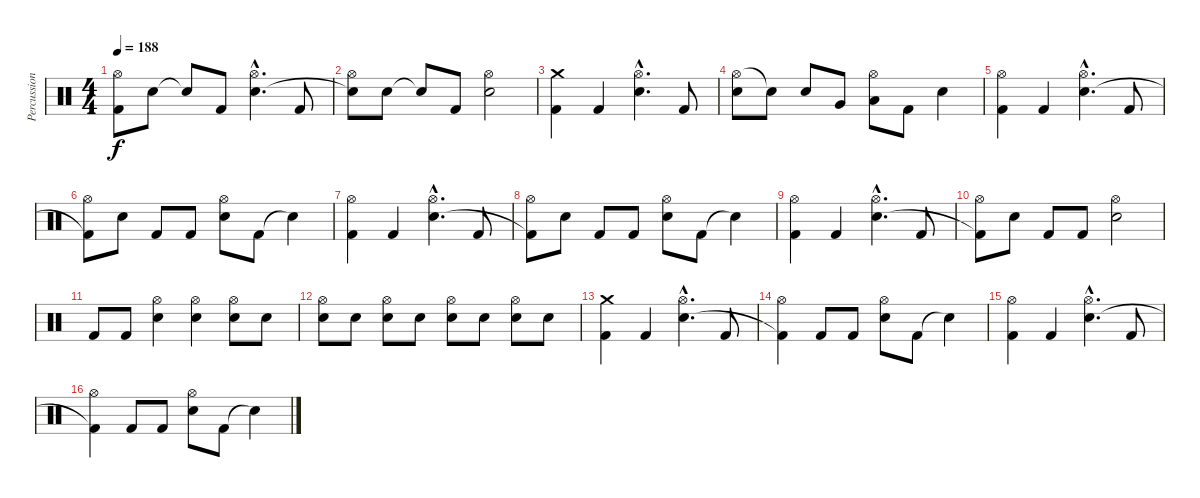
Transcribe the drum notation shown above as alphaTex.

\track ("Percussion" "Percussion") {instrument percussion}
\staff {score}
\articulation defaults
\ts (4 4)
\tempo 188
\clef neutral
\ks c
("Hi-Hat (open)" "Kick (hit) 2").8{dy f} "Electric Snare (hit)".8 "Snare (hit)"{t}.8 "Kick (hit) 2".8 ("Hi-Hat (open)"{hac} "Electric Snare (hit)"{hac}).4{d} "Kick (hit) 2".8 |
("Hi-Hat (open)" "Snare (hit)"{t}).8 "Electric Snare (hit)".8 "Snare (hit)"{t}.8 "Kick (hit) 2".8 ("Hi-Hat (open)" "Electric Snare (hit)").2 |
("Crash medium (hit)" "Kick (hit) 2").4 "Kick (hit) 2".4 ("Hi-Hat (open)"{hac} "Electric Snare (hit)"{hac}).4{d} "Kick (hit) 2".8 |
("Hi-Hat (open)" "Electric Snare (hit)").8 "Electric Snare (hit)"{t}.8 "Electric Snare (hit)".8 "Very Low Tom (hit)".8 ("Hi-Hat (open)" "Low Floor Tom (hit)").8 "Kick (hit) 2".8 "Electric Snare (hit)".4 |
("Hi-Hat (open)" "Kick (hit) 2").4 "Kick (hit) 2".4 ("Hi-Hat (open)"{hac} "Electric Snare (hit)"{hac}).4{d} "Kick (hit) 2".8 |
("Hi-Hat (open)" "Kick (hit) 2"{t}).8 "Electric Snare (hit)".8 "Kick (hit) 2".8 "Kick (hit) 2".8 ("Hi-Hat (open)" "Electric Snare (hit)").8 "Kick (hit) 2".8 "Snare (hit)"{t}.4 |
("Hi-Hat (open)" "Kick (hit) 2").4 "Kick (hit) 2".4 ("Hi-Hat (open)"{hac} "Electric Snare (hit)"{hac}).4{d} "Kick (hit) 2".8 |
("Hi-Hat (open)" "Kick (hit) 2"{t}).8 "Electric Snare (hit)".8 "Kick (hit) 2".8 "Kick (hit) 2".8 ("Hi-Hat (open)" "Electric Snare (hit)").8 "Kick (hit) 2".8 "Snare (hit)"{t}.4 |
("Hi-Hat (open)" "Kick (hit) 2").4 "Kick (hit) 2".4 ("Hi-Hat (open)"{hac} "Electric Snare (hit)"{hac}).4{d} "Kick (hit) 2".8 |
("Hi-Hat (open)" "Kick (hit) 2"{t}).8 "Electric Snare (hit)".8 "Kick (hit) 2".8 "Kick (hit) 2".8 ("Hi-Hat (open)" "Electric Snare (hit)").2 |
"Kick (hit) 2".8 "Kick (hit) 2".8 ("Hi-Hat (open)" "Electric Snare (hit)").4 ("Hi-Hat (open)" "Electric Snare (hit)").4 ("Hi-Hat (open)" "Electric Snare (hit)").8 "Electric Snare (hit)".8 |
("Hi-Hat (open)" "Electric Snare (hit)").8 "Electric Snare (hit)".8 ("Hi-Hat (open)" "Electric Snare (hit)").8 "Electric Snare (hit)".8 ("Hi-Hat (open)" "Electric Snare (hit)").8 "Electric Snare (hit)".8 ("Hi-Hat (open)" "Electric Snare (hit)").8 "Electric Snare (hit)".8 |
("Crash medium (hit)" "Kick (hit) 2").4 "Kick (hit) 2".4 ("Hi-Hat (open)"{hac} "Electric Snare (hit)"{hac}).4{d} "Kick (hit) 2".8 |
("Hi-Hat (open)" "Kick (hit) 2"{t}).4 "Kick (hit) 2".8 "Kick (hit) 2".8 ("Hi-Hat (open)" "Electric Snare (hit)").8 "Kick (hit) 2".8 "Snare (hit)"{t}.4 |
("Hi-Hat (open)" "Kick (hit) 2").4 "Kick (hit) 2".4 ("Hi-Hat (open)"{hac} "Electric Snare (hit)"{hac}).4{d} "Kick (hit) 2".8 |
("Hi-Hat (open)" "Kick (hit) 2"{t}).4 "Kick (hit) 2".8 "Kick (hit) 2".8 ("Hi-Hat (open)" "Electric Snare (hit)").8 "Kick (hit) 2".8 "Snare (hit)"{t}.4
